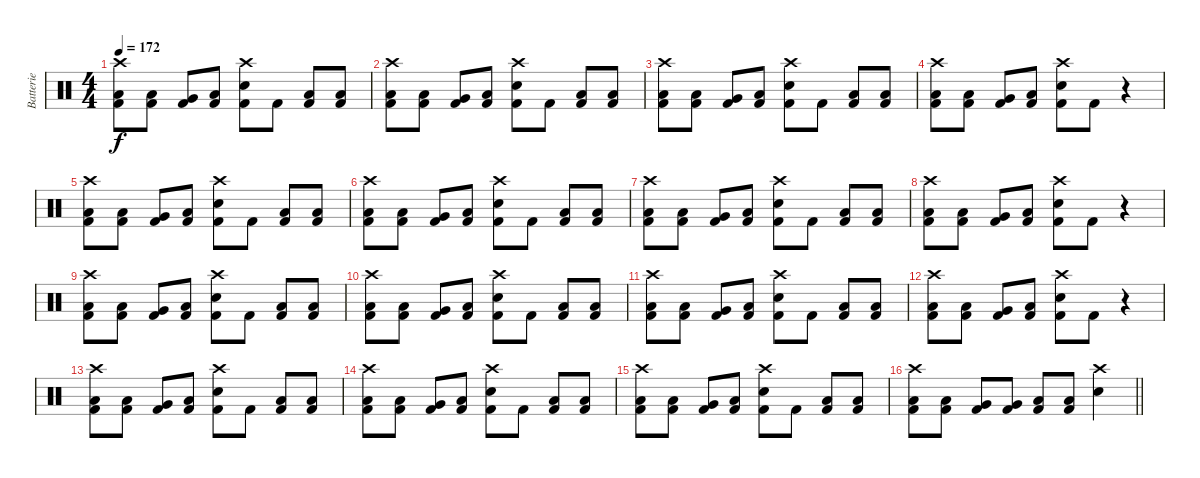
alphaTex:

\track ("Batterie" "Batterie") {instrument percussion}
\staff {score}
\articulation defaults
\ts (4 4)
\tempo 172
\clef neutral
\ks c
("Crash high (hit)" "Low Tom (hit)" "Kick (hit) 2").8{dy f} ("Low Tom (hit)" "Kick (hit) 2").8 ("Very Low Tom (hit)" "Kick (hit) 2").8 ("Low Floor Tom (hit)" "Kick (hit) 2").8 ("Crash high (hit)" "Electric Snare (hit)" "Kick (hit) 2").8 "Kick (hit) 2".8 ("Low Tom (hit)" "Kick (hit) 2").8 ("Low Tom (hit)" "Kick (hit) 2").8 |
("Crash high (hit)" "Low Tom (hit)" "Kick (hit) 2").8 ("Low Tom (hit)" "Kick (hit) 2").8 ("Very Low Tom (hit)" "Kick (hit) 2").8 ("Low Floor Tom (hit)" "Kick (hit) 2").8 ("Crash high (hit)" "Electric Snare (hit)" "Kick (hit) 2").8 "Kick (hit) 2".8 ("Low Tom (hit)" "Kick (hit) 2").8 ("Low Tom (hit)" "Kick (hit) 2").8 |
("Crash high (hit)" "Low Tom (hit)" "Kick (hit) 2").8 ("Low Tom (hit)" "Kick (hit) 2").8 ("Very Low Tom (hit)" "Kick (hit) 2").8 ("Low Floor Tom (hit)" "Kick (hit) 2").8 ("Crash high (hit)" "Electric Snare (hit)" "Kick (hit) 2").8 "Kick (hit) 2".8 ("Low Tom (hit)" "Kick (hit) 2").8 ("Low Tom (hit)" "Kick (hit) 2").8 |
("Crash high (hit)" "Low Tom (hit)" "Kick (hit) 2").8 ("Low Tom (hit)" "Kick (hit) 2").8 ("Very Low Tom (hit)" "Kick (hit) 2").8 ("Low Floor Tom (hit)" "Kick (hit) 2").8 ("Crash high (hit)" "Electric Snare (hit)" "Kick (hit) 2").8 "Kick (hit) 2".8 r.4 |
("Crash high (hit)" "Low Tom (hit)" "Kick (hit) 2").8 ("Low Tom (hit)" "Kick (hit) 2").8 ("Very Low Tom (hit)" "Kick (hit) 2").8 ("Low Floor Tom (hit)" "Kick (hit) 2").8 ("Crash high (hit)" "Electric Snare (hit)" "Kick (hit) 2").8 "Kick (hit) 2".8 ("Low Tom (hit)" "Kick (hit) 2").8 ("Low Tom (hit)" "Kick (hit) 2").8 |
("Crash high (hit)" "Low Tom (hit)" "Kick (hit) 2").8 ("Low Tom (hit)" "Kick (hit) 2").8 ("Very Low Tom (hit)" "Kick (hit) 2").8 ("Low Floor Tom (hit)" "Kick (hit) 2").8 ("Crash high (hit)" "Electric Snare (hit)" "Kick (hit) 2").8 "Kick (hit) 2".8 ("Low Tom (hit)" "Kick (hit) 2").8 ("Low Tom (hit)" "Kick (hit) 2").8 |
("Crash high (hit)" "Low Tom (hit)" "Kick (hit) 2").8 ("Low Tom (hit)" "Kick (hit) 2").8 ("Very Low Tom (hit)" "Kick (hit) 2").8 ("Low Floor Tom (hit)" "Kick (hit) 2").8 ("Crash high (hit)" "Electric Snare (hit)" "Kick (hit) 2").8 "Kick (hit) 2".8 ("Low Tom (hit)" "Kick (hit) 2").8 ("Low Tom (hit)" "Kick (hit) 2").8 |
("Crash high (hit)" "Low Tom (hit)" "Kick (hit) 2").8 ("Low Tom (hit)" "Kick (hit) 2").8 ("Very Low Tom (hit)" "Kick (hit) 2").8 ("Low Floor Tom (hit)" "Kick (hit) 2").8 ("Crash high (hit)" "Electric Snare (hit)" "Kick (hit) 2").8 "Kick (hit) 2".8 r.4 |
("Crash high (hit)" "Low Tom (hit)" "Kick (hit) 2").8 ("Low Tom (hit)" "Kick (hit) 2").8 ("Very Low Tom (hit)" "Kick (hit) 2").8 ("Low Floor Tom (hit)" "Kick (hit) 2").8 ("Crash high (hit)" "Electric Snare (hit)" "Kick (hit) 2").8 "Kick (hit) 2".8 ("Low Tom (hit)" "Kick (hit) 2").8 ("Low Tom (hit)" "Kick (hit) 2").8 |
("Crash high (hit)" "Low Tom (hit)" "Kick (hit) 2").8 ("Low Tom (hit)" "Kick (hit) 2").8 ("Very Low Tom (hit)" "Kick (hit) 2").8 ("Low Floor Tom (hit)" "Kick (hit) 2").8 ("Crash high (hit)" "Electric Snare (hit)" "Kick (hit) 2").8 "Kick (hit) 2".8 ("Low Tom (hit)" "Kick (hit) 2").8 ("Low Tom (hit)" "Kick (hit) 2").8 |
("Crash high (hit)" "Low Tom (hit)" "Kick (hit) 2").8 ("Low Tom (hit)" "Kick (hit) 2").8 ("Very Low Tom (hit)" "Kick (hit) 2").8 ("Low Floor Tom (hit)" "Kick (hit) 2").8 ("Crash high (hit)" "Electric Snare (hit)" "Kick (hit) 2").8 "Kick (hit) 2".8 ("Low Tom (hit)" "Kick (hit) 2").8 ("Low Tom (hit)" "Kick (hit) 2").8 |
("Crash high (hit)" "Low Tom (hit)" "Kick (hit) 2").8 ("Low Tom (hit)" "Kick (hit) 2").8 ("Very Low Tom (hit)" "Kick (hit) 2").8 ("Low Floor Tom (hit)" "Kick (hit) 2").8 ("Crash high (hit)" "Electric Snare (hit)" "Kick (hit) 2").8 "Kick (hit) 2".8 r.4 |
("Crash high (hit)" "Low Tom (hit)" "Kick (hit) 2").8 ("Low Tom (hit)" "Kick (hit) 2").8 ("Very Low Tom (hit)" "Kick (hit) 2").8 ("Low Floor Tom (hit)" "Kick (hit) 2").8 ("Crash high (hit)" "Electric Snare (hit)" "Kick (hit) 2").8 "Kick (hit) 2".8 ("Low Tom (hit)" "Kick (hit) 2").8 ("Low Tom (hit)" "Kick (hit) 2").8 |
("Crash high (hit)" "Low Tom (hit)" "Kick (hit) 2").8 ("Low Tom (hit)" "Kick (hit) 2").8 ("Very Low Tom (hit)" "Kick (hit) 2").8 ("Low Floor Tom (hit)" "Kick (hit) 2").8 ("Crash high (hit)" "Electric Snare (hit)" "Kick (hit) 2").8 "Kick (hit) 2".8 ("Low Tom (hit)" "Kick (hit) 2").8 ("Low Tom (hit)" "Kick (hit) 2").8 |
("Crash high (hit)" "Low Tom (hit)" "Kick (hit) 2").8 ("Low Tom (hit)" "Kick (hit) 2").8 ("Very Low Tom (hit)" "Kick (hit) 2").8 ("Low Floor Tom (hit)" "Kick (hit) 2").8 ("Crash high (hit)" "Electric Snare (hit)" "Kick (hit) 2").8 "Kick (hit) 2".8 ("Low Tom (hit)" "Kick (hit) 2").8 ("Low Tom (hit)" "Kick (hit) 2").8 |
\barLineRight lightlight
("Crash high (hit)" "Low Tom (hit)" "Kick (hit) 2").8 ("Low Tom (hit)" "Kick (hit) 2").8 ("Very Low Tom (hit)" "Kick (hit) 2").8 ("Very Low Tom (hit)" "Kick (hit) 2").8 ("Low Floor Tom (hit)" "Kick (hit) 2").8 ("Low Floor Tom (hit)" "Kick (hit) 2").8 ("Crash high (hit)" "Electric Snare (hit)").4
